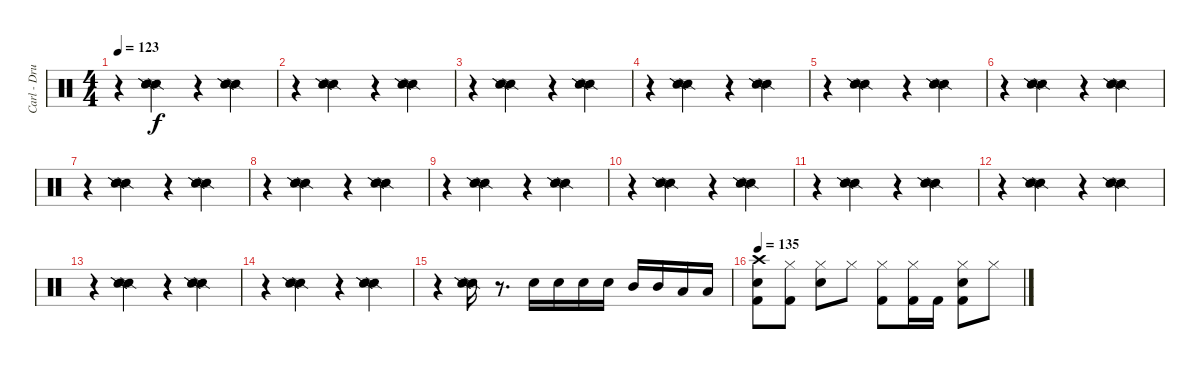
\track ("Carl - Drums" "Carl - Dru") {instrument percussion}
\staff {score}
\articulation defaults
\ts (4 4)
\tempo 123
\clef neutral
\ks c
r.4{dy f} ("Snare (side stick) 2" "Snare (side stick) 2" "Snare (side stick) 2").4 r.4 ("Snare (side stick) 2" "Snare (side stick) 2" "Snare (side stick) 2").4 |
r.4 ("Snare (side stick) 2" "Snare (side stick) 2" "Snare (side stick) 2").4 r.4 ("Snare (side stick) 2" "Snare (side stick) 2" "Snare (side stick) 2").4 |
r.4 ("Snare (side stick) 2" "Snare (side stick) 2" "Snare (side stick) 2").4 r.4 ("Snare (side stick) 2" "Snare (side stick) 2" "Snare (side stick) 2").4 |
r.4 ("Snare (side stick) 2" "Snare (side stick) 2" "Snare (side stick) 2").4 r.4 ("Snare (side stick) 2" "Snare (side stick) 2" "Snare (side stick) 2").4 |
r.4 ("Snare (side stick) 2" "Snare (side stick) 2" "Snare (side stick) 2").4 r.4 ("Snare (side stick) 2" "Snare (side stick) 2" "Snare (side stick) 2").4 |
r.4 ("Snare (side stick) 2" "Snare (side stick) 2" "Snare (side stick) 2").4 r.4 ("Snare (side stick) 2" "Snare (side stick) 2" "Snare (side stick) 2").4 |
r.4 ("Snare (side stick) 2" "Snare (side stick) 2" "Snare (side stick) 2").4 r.4 ("Snare (side stick) 2" "Snare (side stick) 2" "Snare (side stick) 2").4 |
r.4 ("Snare (side stick) 2" "Snare (side stick) 2" "Snare (side stick) 2").4 r.4 ("Snare (side stick) 2" "Snare (side stick) 2" "Snare (side stick) 2").4 |
r.4 ("Snare (side stick) 2" "Snare (side stick) 2" "Snare (side stick) 2").4 r.4 ("Snare (side stick) 2" "Snare (side stick) 2" "Snare (side stick) 2").4 |
r.4 ("Snare (side stick) 2" "Snare (side stick) 2" "Snare (side stick) 2").4 r.4 ("Snare (side stick) 2" "Snare (side stick) 2" "Snare (side stick) 2").4 |
r.4 ("Snare (side stick) 2" "Snare (side stick) 2" "Snare (side stick) 2").4 r.4 ("Snare (side stick) 2" "Snare (side stick) 2" "Snare (side stick) 2").4 |
r.4 ("Snare (side stick) 2" "Snare (side stick) 2" "Snare (side stick) 2").4 r.4 ("Snare (side stick) 2" "Snare (side stick) 2" "Snare (side stick) 2").4 |
r.4 ("Snare (side stick) 2" "Snare (side stick) 2" "Snare (side stick) 2").4 r.4 ("Snare (side stick) 2" "Snare (side stick) 2" "Snare (side stick) 2").4 |
r.4 ("Snare (side stick) 2" "Snare (side stick) 2" "Snare (side stick) 2").4 r.4 ("Snare (side stick) 2" "Snare (side stick) 2" "Snare (side stick) 2").4 |
r.4 ("Snare (side stick) 2" "Snare (side stick) 2" "Snare (side stick) 2").16 r.8{d} "Electric Snare (hit)".16 "Electric Snare (hit)".16 "Electric Snare (hit)".16 "Electric Snare (hit)".16 "Mid Tom (hit)".16 "Mid Tom (hit)".16 "Low Tom (hit)".16 "Low Tom (hit)".16 |
\tempo 135
("Electric Snare (hit)" "Crash high (hit)" "Kick (hit) 2").8 ("Hi-Hat (closed)" "Kick (hit) 2").8 ("Electric Snare (hit)" "Hi-Hat (closed)").8 "Hi-Hat (closed)".8 ("Hi-Hat (closed)" "Kick (hit) 2").8 ("Hi-Hat (closed)" "Kick (hit) 2").16 "Kick (hit) 2".16 ("Electric Snare (hit)" "Hi-Hat (closed)" "Kick (hit) 2").8 "Hi-Hat (closed)".8
